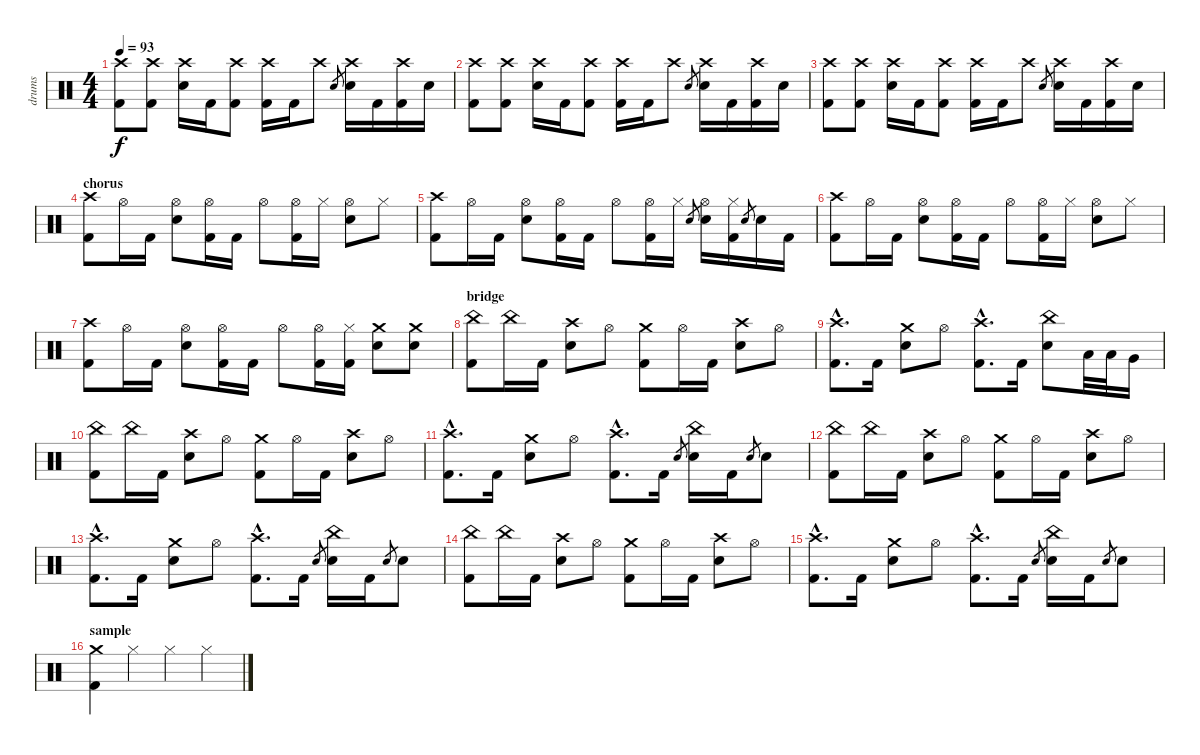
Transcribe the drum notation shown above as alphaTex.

\track ("drums" "drums") {instrument percussion}
\staff {score}
\articulation defaults
\ts (4 4)
\tempo 93
\clef neutral
\ks c
("Crash high (hit)" "Kick (hit) 2").8{dy f} ("Crash high (hit)" "Kick (hit) 2").8 ("Crash high (hit)" "Electric Snare (hit)").16 "Kick (hit) 2".16 ("Crash high (hit)" "Kick (hit) 2").8 ("Crash high (hit)" "Kick (hit) 2").16 "Kick (hit) 2".16 "Crash high (hit)".8 "Electric Snare (hit)".8{gr} ("Crash high (hit)" "Electric Snare (hit)").16 "Kick (hit) 2".16 ("Crash high (hit)" "Kick (hit) 2").16 "Electric Snare (hit)".16 |
("Crash high (hit)" "Kick (hit) 2").8 ("Crash high (hit)" "Kick (hit) 2").8 ("Crash high (hit)" "Electric Snare (hit)").16 "Kick (hit) 2".16 ("Crash high (hit)" "Kick (hit) 2").8 ("Crash high (hit)" "Kick (hit) 2").16 "Kick (hit) 2".16 "Crash high (hit)".8 "Electric Snare (hit)".8{gr} ("Crash high (hit)" "Electric Snare (hit)").16 "Kick (hit) 2".16 ("Crash high (hit)" "Kick (hit) 2").16 "Electric Snare (hit)".16 |
("Crash high (hit)" "Kick (hit) 2").8 ("Crash high (hit)" "Kick (hit) 2").8 ("Crash high (hit)" "Electric Snare (hit)").16 "Kick (hit) 2".16 ("Crash high (hit)" "Kick (hit) 2").8 ("Crash high (hit)" "Kick (hit) 2").16 "Kick (hit) 2".16 "Crash high (hit)".8 "Electric Snare (hit)".8{gr} ("Crash high (hit)" "Electric Snare (hit)").16 "Kick (hit) 2".16 ("Crash high (hit)" "Kick (hit) 2").16 "Electric Snare (hit)".16 |
\section ("" "chorus")
("Crash high (hit)" "Kick (hit) 2").8 "Hi-Hat (open)".16 "Kick (hit) 2".16 ("Hi-Hat (open)" "Electric Snare (hit)").8 ("Hi-Hat (open)" "Kick (hit) 2").16 "Kick (hit) 2".16 "Hi-Hat (open)".8 ("Hi-Hat (open)" "Kick (hit) 2").16 "Hi-Hat (closed)".16 ("Hi-Hat (open)" "Electric Snare (hit)").8 "Hi-Hat (closed)".8 |
("Crash high (hit)" "Kick (hit) 2").8 "Hi-Hat (open)".16 "Kick (hit) 2".16 ("Hi-Hat (open)" "Electric Snare (hit)").8 ("Hi-Hat (open)" "Kick (hit) 2").16 "Kick (hit) 2".16 "Hi-Hat (open)".8 ("Hi-Hat (open)" "Kick (hit) 2").16 "Hi-Hat (closed)".16 "Electric Snare (hit)".8{gr} ("Hi-Hat (open)" "Electric Snare (hit)").16 ("Hi-Hat (closed)" "Kick (hit) 2").16 "Electric Snare (hit)".8{gr} "Electric Snare (hit)".16 "Kick (hit) 2".16 |
("Crash high (hit)" "Kick (hit) 2").8 "Hi-Hat (open)".16 "Kick (hit) 2".16 ("Hi-Hat (open)" "Electric Snare (hit)").8 ("Hi-Hat (open)" "Kick (hit) 2").16 "Kick (hit) 2".16 "Hi-Hat (open)".8 ("Hi-Hat (open)" "Kick (hit) 2").16 "Hi-Hat (closed)".16 ("Hi-Hat (open)" "Electric Snare (hit)").8 "Hi-Hat (closed)".8 |
("Crash high (hit)" "Kick (hit) 2").8 "Hi-Hat (open)".16 "Kick (hit) 2".16 ("Hi-Hat (open)" "Electric Snare (hit)").8 ("Hi-Hat (open)" "Kick (hit) 2").16 "Kick (hit) 2".16 "Hi-Hat (open)".8 ("Hi-Hat (open)" "Kick (hit) 2").16 ("Hi-Hat (closed)" "Kick (hit) 2").16 ("Crash medium (hit)" "Electric Snare (hit)").8 ("Crash medium (hit)" "Electric Snare (hit)").8 |
\section ("" "bridge")
("China (hit)" "Kick (hit) 2").8 "China (hit)".16 "Kick (hit) 2".16 ("Crash high (hit)" "Electric Snare (hit)").8 "Hi-Hat (open)".8 ("Crash medium (hit)" "Kick (hit) 2").8 "Hi-Hat (open)".16 "Kick (hit) 2".16 ("Crash high (hit)" "Electric Snare (hit)").8 "Hi-Hat (open)".8 |
("Crash high (hit)"{hac} "Kick (hit) 2"{hac}).8{d} "Kick (hit) 2".16 ("Crash medium (hit)" "Electric Snare (hit)").8 "Hi-Hat (open)".8 ("Crash high (hit)"{hac} "Kick (hit) 2"{hac}).8{d} "Kick (hit) 2".16 ("China (hit)" "Electric Snare (hit)").8 "Low Tom (hit)".32 "Low Tom (hit)".32 "Very Low Tom (hit)".16 |
("China (hit)" "Kick (hit) 2").8 "China (hit)".16 "Kick (hit) 2".16 ("Crash high (hit)" "Electric Snare (hit)").8 "Hi-Hat (open)".8 ("Crash medium (hit)" "Kick (hit) 2").8 "Hi-Hat (open)".16 "Kick (hit) 2".16 ("Crash high (hit)" "Electric Snare (hit)").8 "Hi-Hat (open)".8 |
("Crash high (hit)"{hac} "Kick (hit) 2"{hac}).8{d} "Kick (hit) 2".16 ("Crash medium (hit)" "Electric Snare (hit)").8 "Hi-Hat (open)".8 ("Crash high (hit)"{hac} "Kick (hit) 2"{hac}).8{d} "Kick (hit) 2".16 "Electric Snare (hit)".8{gr} ("China (hit)" "Electric Snare (hit)").16 "Kick (hit) 2".16 "Electric Snare (hit)".8{gr} "Electric Snare (hit)".8 |
("China (hit)" "Kick (hit) 2").8 "China (hit)".16 "Kick (hit) 2".16 ("Crash high (hit)" "Electric Snare (hit)").8 "Hi-Hat (open)".8 ("Crash medium (hit)" "Kick (hit) 2").8 "Hi-Hat (open)".16 "Kick (hit) 2".16 ("Crash high (hit)" "Electric Snare (hit)").8 "Hi-Hat (open)".8 |
("Crash high (hit)"{hac} "Kick (hit) 2"{hac}).8{d} "Kick (hit) 2".16 ("Crash medium (hit)" "Electric Snare (hit)").8 "Hi-Hat (open)".8 ("Crash high (hit)"{hac} "Kick (hit) 2"{hac}).8{d} "Kick (hit) 2".16 "Electric Snare (hit)".8{gr} ("China (hit)" "Electric Snare (hit)").16 "Kick (hit) 2".16 "Electric Snare (hit)".8{gr} "Electric Snare (hit)".8 |
("China (hit)" "Kick (hit) 2").8 "China (hit)".16 "Kick (hit) 2".16 ("Crash high (hit)" "Electric Snare (hit)").8 "Hi-Hat (open)".8 ("Crash medium (hit)" "Kick (hit) 2").8 "Hi-Hat (open)".16 "Kick (hit) 2".16 ("Crash high (hit)" "Electric Snare (hit)").8 "Hi-Hat (open)".8 |
("Crash high (hit)"{hac} "Kick (hit) 2"{hac}).8{d} "Kick (hit) 2".16 ("Crash medium (hit)" "Electric Snare (hit)").8 "Hi-Hat (open)".8 ("Crash high (hit)"{hac} "Kick (hit) 2"{hac}).8{d} "Kick (hit) 2".16 "Electric Snare (hit)".8{gr} ("China (hit)" "Electric Snare (hit)").16 "Kick (hit) 2".16 "Electric Snare (hit)".8{gr} "Electric Snare (hit)".8 |
\section ("" "sample")
("Crash medium (hit)" "Kick (hit) 2").4 "Hi-Hat (closed)".4 "Hi-Hat (closed)".4 "Hi-Hat (closed)".4
